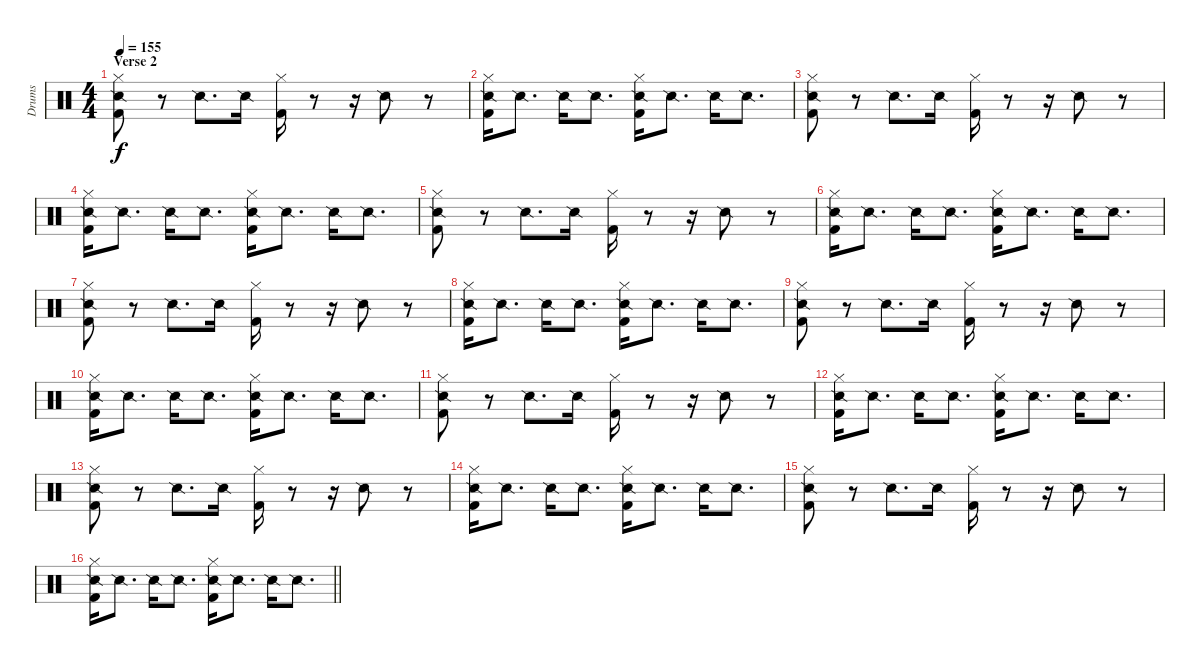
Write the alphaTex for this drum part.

\track ("Drums" "Drums") {instrument percussion}
\staff {score}
\articulation defaults
\ts (4 4)
\section ("" "Verse 2")
\tempo 155
\clef neutral
\ks c
("Hi-Hat (closed)" "Snare (side stick) 2" "Kick (hit) 2").8{dy f} r.8 "Snare (side stick) 2".8{d} "Snare (side stick) 2".16 ("Hi-Hat (closed)" "Kick (hit) 2").16 r.8 r.16 "Snare (side stick) 2".8 r.8 |
("Hi-Hat (closed)" "Snare (side stick) 2" "Kick (hit) 2").16 "Snare (side stick) 2".8{d} "Snare (side stick) 2".16 "Snare (side stick) 2".8{d} ("Hi-Hat (closed)" "Snare (side stick) 2" "Kick (hit) 2").16 "Snare (side stick) 2".8{d} "Snare (side stick) 2".16 "Snare (side stick) 2".8{d} |
("Hi-Hat (closed)" "Snare (side stick) 2" "Kick (hit) 2").8 r.8 "Snare (side stick) 2".8{d} "Snare (side stick) 2".16 ("Hi-Hat (closed)" "Kick (hit) 2").16 r.8 r.16 "Snare (side stick) 2".8 r.8 |
("Hi-Hat (closed)" "Snare (side stick) 2" "Kick (hit) 2").16 "Snare (side stick) 2".8{d} "Snare (side stick) 2".16 "Snare (side stick) 2".8{d} ("Hi-Hat (closed)" "Snare (side stick) 2" "Kick (hit) 2").16 "Snare (side stick) 2".8{d} "Snare (side stick) 2".16 "Snare (side stick) 2".8{d} |
("Hi-Hat (closed)" "Snare (side stick) 2" "Kick (hit) 2").8 r.8 "Snare (side stick) 2".8{d} "Snare (side stick) 2".16 ("Hi-Hat (closed)" "Kick (hit) 2").16 r.8 r.16 "Snare (side stick) 2".8 r.8 |
("Hi-Hat (closed)" "Snare (side stick) 2" "Kick (hit) 2").16 "Snare (side stick) 2".8{d} "Snare (side stick) 2".16 "Snare (side stick) 2".8{d} ("Hi-Hat (closed)" "Snare (side stick) 2" "Kick (hit) 2").16 "Snare (side stick) 2".8{d} "Snare (side stick) 2".16 "Snare (side stick) 2".8{d} |
("Hi-Hat (closed)" "Snare (side stick) 2" "Kick (hit) 2").8 r.8 "Snare (side stick) 2".8{d} "Snare (side stick) 2".16 ("Hi-Hat (closed)" "Kick (hit) 2").16 r.8 r.16 "Snare (side stick) 2".8 r.8 |
("Hi-Hat (closed)" "Snare (side stick) 2" "Kick (hit) 2").16 "Snare (side stick) 2".8{d} "Snare (side stick) 2".16 "Snare (side stick) 2".8{d} ("Hi-Hat (closed)" "Snare (side stick) 2" "Kick (hit) 2").16 "Snare (side stick) 2".8{d} "Snare (side stick) 2".16 "Snare (side stick) 2".8{d} |
("Hi-Hat (closed)" "Snare (side stick) 2" "Kick (hit) 2").8 r.8 "Snare (side stick) 2".8{d} "Snare (side stick) 2".16 ("Hi-Hat (closed)" "Kick (hit) 2").16 r.8 r.16 "Snare (side stick) 2".8 r.8 |
("Hi-Hat (closed)" "Snare (side stick) 2" "Kick (hit) 2").16 "Snare (side stick) 2".8{d} "Snare (side stick) 2".16 "Snare (side stick) 2".8{d} ("Hi-Hat (closed)" "Snare (side stick) 2" "Kick (hit) 2").16 "Snare (side stick) 2".8{d} "Snare (side stick) 2".16 "Snare (side stick) 2".8{d} |
("Hi-Hat (closed)" "Snare (side stick) 2" "Kick (hit) 2").8 r.8 "Snare (side stick) 2".8{d} "Snare (side stick) 2".16 ("Hi-Hat (closed)" "Kick (hit) 2").16 r.8 r.16 "Snare (side stick) 2".8 r.8 |
("Hi-Hat (closed)" "Snare (side stick) 2" "Kick (hit) 2").16 "Snare (side stick) 2".8{d} "Snare (side stick) 2".16 "Snare (side stick) 2".8{d} ("Hi-Hat (closed)" "Snare (side stick) 2" "Kick (hit) 2").16 "Snare (side stick) 2".8{d} "Snare (side stick) 2".16 "Snare (side stick) 2".8{d} |
("Hi-Hat (closed)" "Snare (side stick) 2" "Kick (hit) 2").8 r.8 "Snare (side stick) 2".8{d} "Snare (side stick) 2".16 ("Hi-Hat (closed)" "Kick (hit) 2").16 r.8 r.16 "Snare (side stick) 2".8 r.8 |
("Hi-Hat (closed)" "Snare (side stick) 2" "Kick (hit) 2").16 "Snare (side stick) 2".8{d} "Snare (side stick) 2".16 "Snare (side stick) 2".8{d} ("Hi-Hat (closed)" "Snare (side stick) 2" "Kick (hit) 2").16 "Snare (side stick) 2".8{d} "Snare (side stick) 2".16 "Snare (side stick) 2".8{d} |
("Hi-Hat (closed)" "Snare (side stick) 2" "Kick (hit) 2").8 r.8 "Snare (side stick) 2".8{d} "Snare (side stick) 2".16 ("Hi-Hat (closed)" "Kick (hit) 2").16 r.8 r.16 "Snare (side stick) 2".8 r.8 |
\barLineRight lightlight
("Hi-Hat (closed)" "Snare (side stick) 2" "Kick (hit) 2").16 "Snare (side stick) 2".8{d} "Snare (side stick) 2".16 "Snare (side stick) 2".8{d} ("Hi-Hat (closed)" "Snare (side stick) 2" "Kick (hit) 2").16 "Snare (side stick) 2".8{d} "Snare (side stick) 2".16 "Snare (side stick) 2".8{d}
